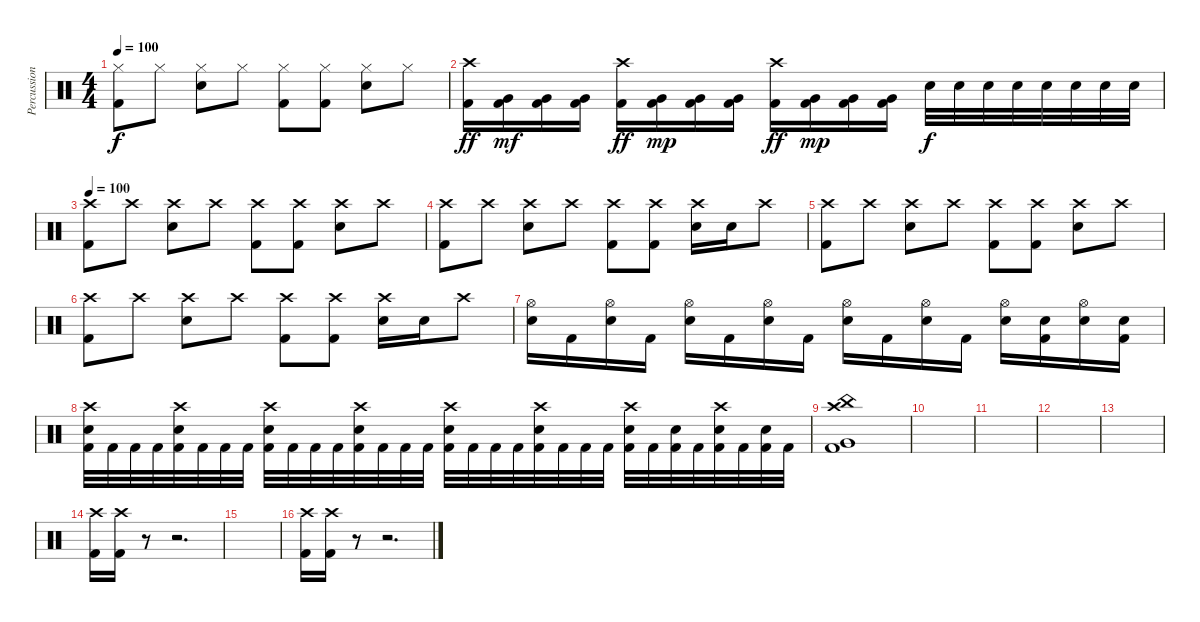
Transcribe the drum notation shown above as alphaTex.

\track ("Percussions" "Percussion") {instrument percussion}
\staff {score}
\articulation defaults
\ts (4 4)
\tempo 100
\clef neutral
\ks c
("Hi-Hat (closed)" "Kick (hit) 2").8{dy f} "Hi-Hat (closed)".8 ("Hi-Hat (closed)" "Snare (hit) 2").8 "Hi-Hat (closed)".8 ("Hi-Hat (closed)" "Kick (hit) 2").8 ("Hi-Hat (closed)" "Kick (hit) 2").8 ("Hi-Hat (closed)" "Snare (hit) 2").8 "Hi-Hat (closed)".8 |
("Crash high (hit)" "Kick (hit) 2").16{dy ff} ("Very Low Tom (hit)" "Kick (hit) 2").16{dy mf} ("Very Low Tom (hit)" "Kick (hit) 2").16 ("Very Low Tom (hit)" "Kick (hit) 2").16 ("Crash high (hit)" "Kick (hit) 2").16{dy ff} ("Very Low Tom (hit)" "Kick (hit) 2").16{dy mp} ("Very Low Tom (hit)" "Kick (hit) 2").16 ("Very Low Tom (hit)" "Kick (hit) 2").16 ("Crash high (hit)" "Kick (hit) 2").16{dy ff} ("Very Low Tom (hit)" "Kick (hit) 2").16{dy mp} ("Very Low Tom (hit)" "Kick (hit) 2").16 ("Very Low Tom (hit)" "Kick (hit) 2").16 "Snare (hit) 2".32{dy f} "Snare (hit) 2".32 "Snare (hit) 2".32 "Snare (hit) 2".32 "Snare (hit) 2".32 "Snare (hit) 2".32 "Snare (hit) 2".32 "Snare (hit) 2".32 |
\tempo 100
("Crash high (hit)" "Kick (hit) 2").8 "Crash high (hit)".8 ("Crash high (hit)" "Snare (hit) 2").8 "Crash high (hit)".8 ("Crash high (hit)" "Kick (hit) 2").8 ("Crash high (hit)" "Kick (hit) 2").8 ("Crash high (hit)" "Snare (hit) 2").8 "Crash high (hit)".8 |
("Crash high (hit)" "Kick (hit) 2").8 "Crash high (hit)".8 ("Crash high (hit)" "Snare (hit) 2").8 "Crash high (hit)".8 ("Crash high (hit)" "Kick (hit) 2").8 ("Crash high (hit)" "Kick (hit) 2").8 ("Crash high (hit)" "Snare (hit) 2").16 "Snare (hit) 2".16 "Crash high (hit)".8 |
("Crash high (hit)" "Kick (hit) 2").8 "Crash high (hit)".8 ("Crash high (hit)" "Snare (hit) 2").8 "Crash high (hit)".8 ("Crash high (hit)" "Kick (hit) 2").8 ("Crash high (hit)" "Kick (hit) 2").8 ("Crash high (hit)" "Snare (hit) 2").8 "Crash high (hit)".8 |
("Crash high (hit)" "Kick (hit) 2").8 "Crash high (hit)".8 ("Crash high (hit)" "Snare (hit) 2").8 "Crash high (hit)".8 ("Crash high (hit)" "Kick (hit) 2").8 ("Crash high (hit)" "Kick (hit) 2").8 ("Crash high (hit)" "Snare (hit) 2").16 "Snare (hit) 2".16 "Crash high (hit)".8 |
("Hi-Hat (open)" "Snare (hit) 2").16 "Kick (hit) 2".16 ("Hi-Hat (open)" "Snare (hit) 2").16 "Kick (hit) 2".16 ("Hi-Hat (open)" "Snare (hit) 2").16 "Kick (hit) 2".16 ("Hi-Hat (open)" "Snare (hit) 2").16 "Kick (hit) 2".16 ("Hi-Hat (open)" "Snare (hit) 2").16 "Kick (hit) 2".16 ("Hi-Hat (open)" "Snare (hit) 2").16 "Kick (hit) 2".16 ("Hi-Hat (open)" "Snare (hit) 2").16 ("Snare (hit) 2" "Kick (hit) 2").16 ("Hi-Hat (open)" "Snare (hit) 2").16 ("Snare (hit) 2" "Kick (hit) 2").16 |
("Crash high (hit)" "Snare (hit) 2" "Kick (hit) 2").32 "Kick (hit) 2".32 "Kick (hit) 2".32 "Kick (hit) 2".32 ("Crash high (hit)" "Snare (hit) 2" "Kick (hit) 2").32 "Kick (hit) 2".32 "Kick (hit) 2".32 "Kick (hit) 2".32 ("Crash high (hit)" "Snare (hit) 2" "Kick (hit) 2").32 "Kick (hit) 2".32 "Kick (hit) 2".32 "Kick (hit) 2".32 ("Crash high (hit)" "Snare (hit) 2" "Kick (hit) 2").32 "Kick (hit) 2".32 "Kick (hit) 2".32 "Kick (hit) 2".32 ("Crash high (hit)" "Snare (hit) 2" "Kick (hit) 2").32 "Kick (hit) 2".32 "Kick (hit) 2".32 "Kick (hit) 2".32 ("Crash high (hit)" "Snare (hit) 2" "Kick (hit) 2").32 "Kick (hit) 2".32 "Kick (hit) 2".32 "Kick (hit) 2".32 ("Crash high (hit)" "Snare (hit) 2" "Kick (hit) 2").32 "Kick (hit) 2".32 ("Snare (hit) 2" "Kick (hit) 2").32 "Kick (hit) 2".32 ("Crash high (hit)" "Snare (hit) 2" "Kick (hit) 2").32 "Kick (hit) 2".32 ("Snare (hit) 2" "Kick (hit) 2").32 "Kick (hit) 2".32 |
("Kick (hit) 2" "Crash high (hit)" "China (hit)" "Very Low Tom (hit)").1 |
|
|
|
|
("Crash high (hit)" "Kick (hit) 2").16 ("Crash high (hit)" "Kick (hit) 2").16 r.8 r.2{d} |
|
("Crash high (hit)" "Kick (hit) 2").16 ("Crash high (hit)" "Kick (hit) 2").16 r.8 r.2{d}
